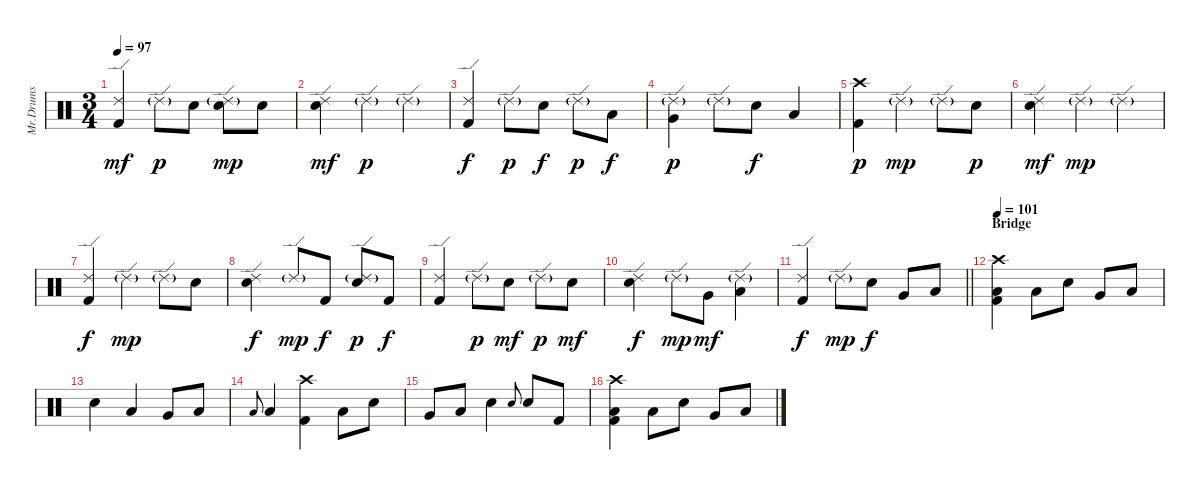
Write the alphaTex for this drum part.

\track ("Mr.Drums" "Mr.Drums") {instrument percussion}
\staff {score}
\articulation defaults
\ts (3 4)
\tempo 97
\clef neutral
\ks c
("Ride (edge) 2" "Kick (hit) 2").4{dy mf} "Ride (edge) 2"{g}.8{dy p} "Electric Snare (hit)".8 ("Ride (edge) 2"{g} "Electric Snare (hit)").8{dy mp} "Electric Snare (hit)".8 |
("Ride (edge) 2" "Electric Snare (hit)").4{dy mf} "Ride (edge) 2"{g}.4{dy p} "Ride (edge) 2"{g}.4 |
("Ride (edge) 2" "Kick (hit) 2").4{dy f} "Ride (edge) 2"{g}.8{dy p} "Electric Snare (hit)".8{dy f} "Ride (edge) 2"{g}.8{dy p} "Low Tom (hit)".8{dy f} |
("Ride (edge) 2"{g} "Very Low Tom (hit)").4{dy p} "Ride (edge) 2"{g}.8 "Electric Snare (hit)".8{dy f} "Low Floor Tom (hit)".4 |
("Crash high (hit)" "Kick (hit) 2").4{dy p} "Ride (edge) 2"{g}.4{dy mp} "Ride (edge) 2"{g}.8 "Electric Snare (hit)".8{dy p} |
("Ride (edge) 2" "Electric Snare (hit)").4{dy mf} "Ride (edge) 2"{g}.4{dy mp} "Ride (edge) 2"{g}.4 |
("Ride (edge) 2" "Kick (hit) 2").4{dy f} "Ride (edge) 2"{g}.4{dy mp} "Ride (edge) 2"{g}.8 "Electric Snare (hit)".8 |
("Ride (edge) 2" "Electric Snare (hit)").4{dy f} "Ride (edge) 2"{g}.8{dy mp} "Kick (hit) 2".8{dy f} ("Ride (edge) 2"{g} "Electric Snare (hit)").8{dy p} "Kick (hit) 2".8{dy f} |
("Ride (edge) 2" "Kick (hit) 2").4 "Ride (edge) 2"{g}.8{dy p} "Electric Snare (hit)".8{dy mf} "Ride (edge) 2"{g}.8{dy p} "Electric Snare (hit)".8{dy mf} |
("Ride (edge) 2" "Electric Snare (hit)").4{dy f} "Ride (edge) 2"{g}.8{dy mp} "Very Low Tom (hit)".8{dy mf} ("Ride (edge) 2"{g} "Low Floor Tom (hit)").4 |
\barLineRight lightlight
("Ride (edge) 2" "Kick (hit) 2").4{dy f} "Ride (edge) 2"{g}.8{dy mp} "Electric Snare (hit)".8{dy f} "Very Low Tom (hit)".8 "Low Floor Tom (hit)".8 |
\section ("" "Bridge")
\tempo 101
("Crash high (hit)" "Low Floor Tom (hit)" "Kick (hit) 2").4 "Low Floor Tom (hit)".8 "Electric Snare (hit)".8 "Very Low Tom (hit)".8 "Low Floor Tom (hit)".8 |
"Electric Snare (hit)".4 "Low Floor Tom (hit)".4 "Very Low Tom (hit)".8 "Low Floor Tom (hit)".8 |
"Low Floor Tom (hit)".8{gr onbeat} "Low Floor Tom (hit)".4 ("Crash high (hit)" "Kick (hit) 2").4 "Low Floor Tom (hit)".8 "Electric Snare (hit)".8 |
"Very Low Tom (hit)".8 "Low Floor Tom (hit)".8 "Electric Snare (hit)".4 "Electric Snare (hit)".8{gr onbeat} "Electric Snare (hit)".8 "Kick (hit) 2".8 |
("Crash high (hit)" "Low Floor Tom (hit)" "Kick (hit) 2").4 "Low Floor Tom (hit)".8 "Electric Snare (hit)".8 "Very Low Tom (hit)".8 "Low Floor Tom (hit)".8
